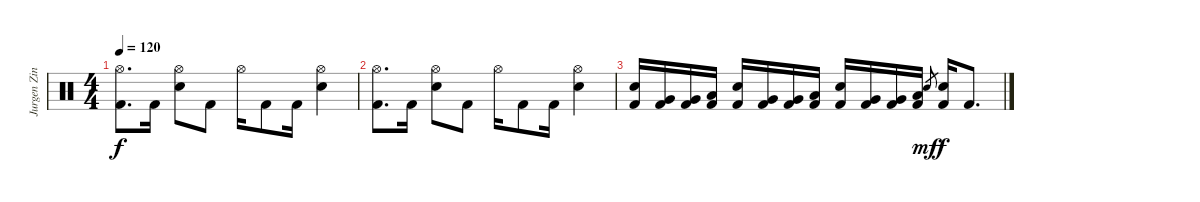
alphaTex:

\track ("Jurgen Zing" "Jurgen Zin") {instrument percussion}
\staff {score}
\articulation defaults
\ts (4 4)
\tempo 120
\clef neutral
\ks c
("Hi-Hat (open)" "Kick (hit) 2").8{d dy f} "Kick (hit) 2".16 ("Hi-Hat (open)" "Electric Snare (hit)").8 "Kick (hit) 2".8 "Hi-Hat (open)".16 "Kick (hit) 2".8 "Kick (hit) 2".16 ("Hi-Hat (open)" "Electric Snare (hit)").4 |
("Hi-Hat (open)" "Kick (hit) 2").8{d} "Kick (hit) 2".16 ("Hi-Hat (open)" "Electric Snare (hit)").8 "Kick (hit) 2".8 "Hi-Hat (open)".16 "Kick (hit) 2".8 "Kick (hit) 2".16 ("Hi-Hat (open)" "Electric Snare (hit)").4 |
("Electric Snare (hit)" "Kick (hit) 2").16 ("Very Low Tom (hit)" "Kick (hit) 2").16 ("Very Low Tom (hit)" "Kick (hit) 2").16 ("Low Floor Tom (hit)" "Kick (hit) 2").16 ("Electric Snare (hit)" "Kick (hit) 2").16 ("Very Low Tom (hit)" "Kick (hit) 2").16 ("Very Low Tom (hit)" "Kick (hit) 2").16 ("Low Floor Tom (hit)" "Kick (hit) 2").16 ("Electric Snare (hit)" "Kick (hit) 2").16 ("Very Low Tom (hit)" "Kick (hit) 2").16 ("Very Low Tom (hit)" "Kick (hit) 2").16 ("Low Floor Tom (hit)" "Kick (hit) 2").16 "Electric Snare (hit)".8{gr dy mf} ("Electric Snare (hit)" "Kick (hit) 2").16{dy f} "Kick (hit) 2".8{d}
